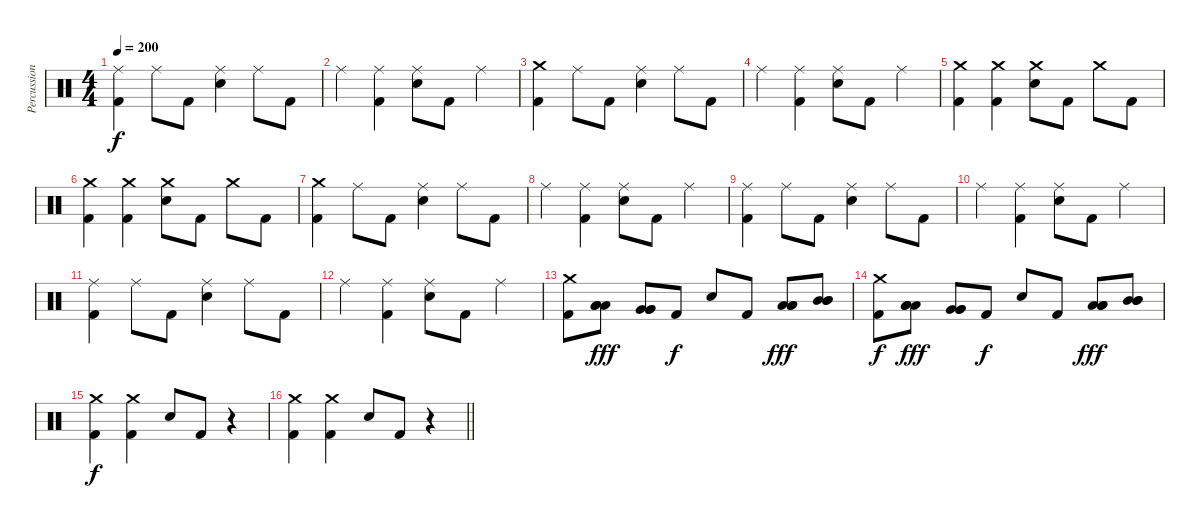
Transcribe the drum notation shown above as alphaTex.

\track ("Percussion" "Percussion") {instrument percussion}
\staff {score}
\articulation defaults
\ts (4 4)
\tempo 200
\clef neutral
\ks c
("Ride (middle)" "Kick (hit) 2").4{dy f} "Ride (middle)".8 "Kick (hit) 2".8 ("Ride (middle)" "Electric Snare (hit)").4 "Ride (middle)".8 "Kick (hit) 2".8 |
"Ride (middle)".4 ("Ride (middle)" "Kick (hit) 2").4 ("Ride (middle)" "Electric Snare (hit)").8 "Kick (hit) 2".8 "Ride (middle)".4 |
("Crash medium (hit)" "Kick (hit) 2").4 "Ride (middle)".8 "Kick (hit) 2".8 ("Ride (middle)" "Electric Snare (hit)").4 "Ride (middle)".8 "Kick (hit) 2".8 |
"Ride (middle)".4 ("Ride (middle)" "Kick (hit) 2").4 ("Ride (middle)" "Electric Snare (hit)").8 "Kick (hit) 2".8 "Ride (middle)".4 |
("Crash medium (hit)" "Kick (hit) 2").4 ("Crash medium (hit)" "Kick (hit) 2").4 ("Crash medium (hit)" "Electric Snare (hit)").8 "Kick (hit) 2".8 "Crash medium (hit)".8 "Kick (hit) 2".8 |
("Crash medium (hit)" "Kick (hit) 2").4 ("Crash medium (hit)" "Kick (hit) 2").4 ("Crash medium (hit)" "Electric Snare (hit)").8 "Kick (hit) 2".8 "Crash medium (hit)".8 "Kick (hit) 2".8 |
("Crash medium (hit)" "Kick (hit) 2").4 "Ride (middle)".8 "Kick (hit) 2".8 ("Ride (middle)" "Electric Snare (hit)").4 "Ride (middle)".8 "Kick (hit) 2".8 |
"Ride (middle)".4 ("Ride (middle)" "Kick (hit) 2").4 ("Ride (middle)" "Electric Snare (hit)").8 "Kick (hit) 2".8 "Ride (middle)".4 |
("Ride (middle)" "Kick (hit) 2").4 "Ride (middle)".8 "Kick (hit) 2".8 ("Ride (middle)" "Electric Snare (hit)").4 "Ride (middle)".8 "Kick (hit) 2".8 |
"Ride (middle)".4 ("Ride (middle)" "Kick (hit) 2").4 ("Ride (middle)" "Electric Snare (hit)").8 "Kick (hit) 2".8 "Ride (middle)".4 |
("Ride (middle)" "Kick (hit) 2").4 "Ride (middle)".8 "Kick (hit) 2".8 ("Ride (middle)" "Electric Snare (hit)").4 "Ride (middle)".8 "Kick (hit) 2".8 |
"Ride (middle)".4 ("Ride (middle)" "Kick (hit) 2").4 ("Ride (middle)" "Electric Snare (hit)").8 "Kick (hit) 2".8 "Ride (middle)".4 |
("Crash medium (hit)" "Kick (hit) 2").8 ("Low Tom (hit)" "Low Tom (hit)" "Low Tom (hit)").8{dy fff balance 12} ("Very Low Tom (hit)" "Very Low Tom (hit)" "Very Low Tom (hit)").8{balance 4} "Kick (hit) 2".8{dy f balance 8} "Electric Snare (hit)".8 "Kick (hit) 2".8 ("Low Tom (hit)" "Low Tom (hit)" "Low Tom (hit)").8{dy fff balance 12} ("Mid Tom (hit)" "Mid Tom (hit)" "Mid Tom (hit)").8{balance 14} |
("Crash medium (hit)" "Kick (hit) 2").8{dy f} ("Low Tom (hit)" "Low Tom (hit)" "Low Tom (hit)").8{dy fff balance 12} ("Very Low Tom (hit)" "Very Low Tom (hit)" "Very Low Tom (hit)").8{balance 4} "Kick (hit) 2".8{dy f balance 8} "Electric Snare (hit)".8 "Kick (hit) 2".8 ("Low Tom (hit)" "Low Tom (hit)" "Low Tom (hit)").8{dy fff balance 12} ("Mid Tom (hit)" "Mid Tom (hit)" "Mid Tom (hit)").8{balance 14} |
("Crash medium (hit)" "Kick (hit) 2").4{dy f balance 8} ("Crash medium (hit)" "Kick (hit) 2").4 "Electric Snare (hit)".8 "Kick (hit) 2".8 r.4 |
\barLineRight lightlight
("Crash medium (hit)" "Kick (hit) 2").4 ("Crash medium (hit)" "Kick (hit) 2").4 "Electric Snare (hit)".8 "Kick (hit) 2".8 r.4
